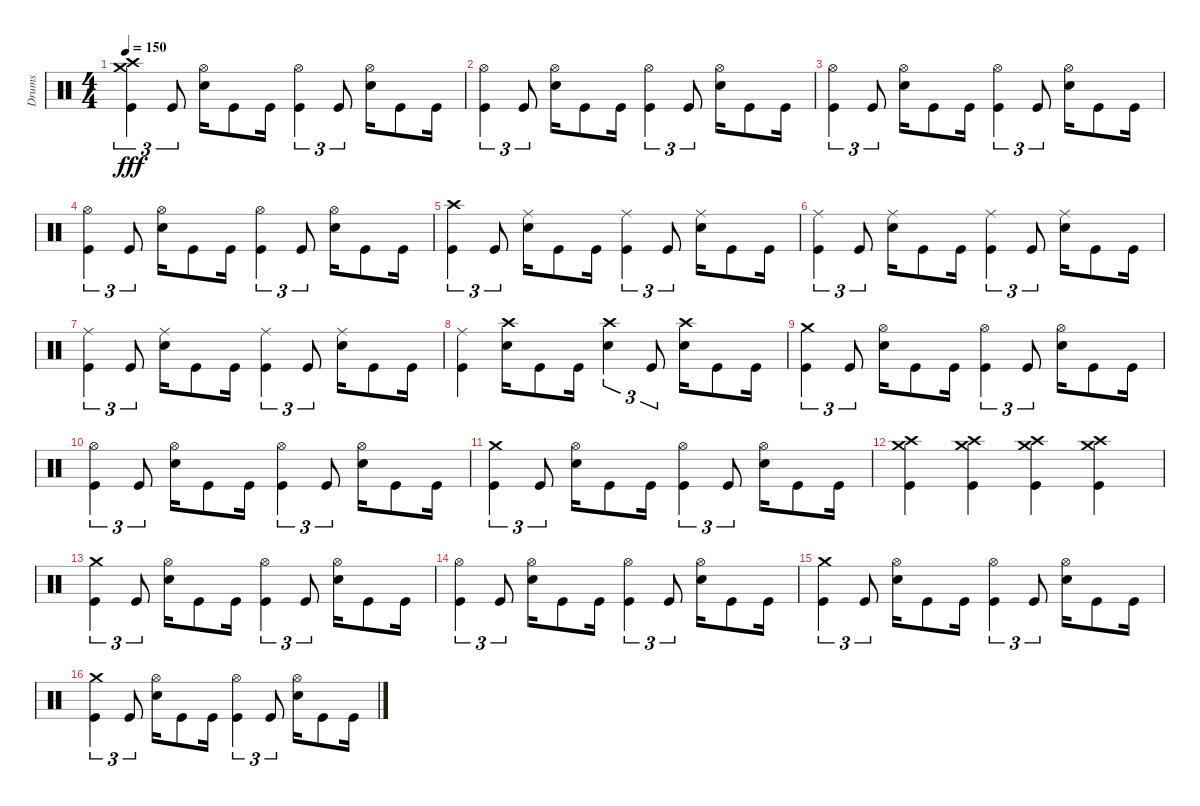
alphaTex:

\track ("Drums" "Drums") {instrument percussion}
\staff {score}
\articulation defaults
\ts (4 4)
\tempo 150
\clef neutral
\ks c
("Crash medium (hit)" "Crash high (hit)" "Kick (hit)").4{tu (3 2) dy fff} "Kick (hit)".8{tu (3 2)} ("Hi-Hat (open)" "Snare (hit) 2").16 "Kick (hit)".8 "Kick (hit)".16 ("Hi-Hat (open)" "Kick (hit)").4{tu (3 2)} "Kick (hit)".8{tu (3 2)} ("Hi-Hat (open)" "Snare (hit) 2").16 "Kick (hit)".8 "Kick (hit)".16 |
("Hi-Hat (open)" "Kick (hit)").4{tu (3 2)} "Kick (hit)".8{tu (3 2)} ("Hi-Hat (open)" "Snare (hit) 2").16 "Kick (hit)".8 "Kick (hit)".16 ("Hi-Hat (open)" "Kick (hit)").4{tu (3 2)} "Kick (hit)".8{tu (3 2)} ("Hi-Hat (open)" "Snare (hit) 2").16 "Kick (hit)".8 "Kick (hit)".16 |
("Hi-Hat (open)" "Kick (hit)").4{tu (3 2)} "Kick (hit)".8{tu (3 2)} ("Hi-Hat (open)" "Snare (hit) 2").16 "Kick (hit)".8 "Kick (hit)".16 ("Hi-Hat (open)" "Kick (hit)").4{tu (3 2)} "Kick (hit)".8{tu (3 2)} ("Hi-Hat (open)" "Snare (hit) 2").16 "Kick (hit)".8 "Kick (hit)".16 |
("Hi-Hat (open)" "Kick (hit)").4{tu (3 2)} "Kick (hit)".8{tu (3 2)} ("Hi-Hat (open)" "Snare (hit) 2").16 "Kick (hit)".8 "Kick (hit)".16 ("Hi-Hat (open)" "Kick (hit)").4{tu (3 2)} "Kick (hit)".8{tu (3 2)} ("Hi-Hat (open)" "Snare (hit) 2").16 "Kick (hit)".8 "Kick (hit)".16 |
("Crash high (hit)" "Kick (hit)").4{tu (3 2)} "Kick (hit)".8{tu (3 2)} ("Ride (middle)" "Snare (hit) 2").16 "Kick (hit)".8 "Kick (hit)".16 ("Ride (middle)" "Kick (hit)").4{tu (3 2)} "Kick (hit)".8{tu (3 2)} ("Ride (middle)" "Snare (hit) 2").16 "Kick (hit)".8 "Kick (hit)".16 |
("Ride (middle)" "Kick (hit)").4{tu (3 2)} "Kick (hit)".8{tu (3 2)} ("Ride (middle)" "Snare (hit) 2").16 "Kick (hit)".8 "Kick (hit)".16 ("Ride (middle)" "Kick (hit)").4{tu (3 2)} "Kick (hit)".8{tu (3 2)} ("Ride (middle)" "Snare (hit) 2").16 "Kick (hit)".8 "Kick (hit)".16 |
("Ride (middle)" "Kick (hit)").4{tu (3 2)} "Kick (hit)".8{tu (3 2)} ("Ride (middle)" "Snare (hit) 2").16 "Kick (hit)".8 "Kick (hit)".16 ("Ride (middle)" "Kick (hit)").4{tu (3 2)} "Kick (hit)".8{tu (3 2)} ("Ride (middle)" "Snare (hit) 2").16 "Kick (hit)".8 "Kick (hit)".16 |
("Ride (middle)" "Kick (hit)").4 ("Crash high (hit)" "Snare (hit) 2").16 "Kick (hit)".8 "Kick (hit)".16 ("Crash high (hit)" "Snare (hit) 2").4{tu (3 2)} "Kick (hit)".8{tu (3 2)} ("Crash high (hit)" "Snare (hit) 2").16 "Kick (hit)".8 "Kick (hit)".16 |
("Crash medium (hit)" "Kick (hit)").4{tu (3 2)} "Kick (hit)".8{tu (3 2)} ("Hi-Hat (open)" "Snare (hit) 2").16 "Kick (hit)".8 "Kick (hit)".16 ("Hi-Hat (open)" "Kick (hit)").4{tu (3 2)} "Kick (hit)".8{tu (3 2)} ("Hi-Hat (open)" "Snare (hit) 2").16 "Kick (hit)".8 "Kick (hit)".16 |
("Hi-Hat (open)" "Kick (hit)").4{tu (3 2)} "Kick (hit)".8{tu (3 2)} ("Hi-Hat (open)" "Snare (hit) 2").16 "Kick (hit)".8 "Kick (hit)".16 ("Hi-Hat (open)" "Kick (hit)").4{tu (3 2)} "Kick (hit)".8{tu (3 2)} ("Hi-Hat (open)" "Snare (hit) 2").16 "Kick (hit)".8 "Kick (hit)".16 |
("Crash medium (hit)" "Kick (hit)").4{tu (3 2)} "Kick (hit)".8{tu (3 2)} ("Hi-Hat (open)" "Snare (hit) 2").16 "Kick (hit)".8 "Kick (hit)".16 ("Hi-Hat (open)" "Kick (hit)").4{tu (3 2)} "Kick (hit)".8{tu (3 2)} ("Hi-Hat (open)" "Snare (hit) 2").16 "Kick (hit)".8 "Kick (hit)".16 |
("Crash medium (hit)" "Crash high (hit)" "Kick (hit)").4 ("Crash medium (hit)" "Crash high (hit)" "Kick (hit)").4 ("Crash medium (hit)" "Crash high (hit)" "Kick (hit)").4 ("Crash medium (hit)" "Crash high (hit)" "Kick (hit)").4 |
("Crash medium (hit)" "Kick (hit)").4{tu (3 2)} "Kick (hit)".8{tu (3 2)} ("Hi-Hat (open)" "Snare (hit) 2").16 "Kick (hit)".8 "Kick (hit)".16 ("Hi-Hat (open)" "Kick (hit)").4{tu (3 2)} "Kick (hit)".8{tu (3 2)} ("Hi-Hat (open)" "Snare (hit) 2").16 "Kick (hit)".8 "Kick (hit)".16 |
("Hi-Hat (open)" "Kick (hit)").4{tu (3 2)} "Kick (hit)".8{tu (3 2)} ("Hi-Hat (open)" "Snare (hit) 2").16 "Kick (hit)".8 "Kick (hit)".16 ("Hi-Hat (open)" "Kick (hit)").4{tu (3 2)} "Kick (hit)".8{tu (3 2)} ("Hi-Hat (open)" "Snare (hit) 2").16 "Kick (hit)".8 "Kick (hit)".16 |
("Crash medium (hit)" "Kick (hit)").4{tu (3 2)} "Kick (hit)".8{tu (3 2)} ("Hi-Hat (open)" "Snare (hit) 2").16 "Kick (hit)".8 "Kick (hit)".16 ("Hi-Hat (open)" "Kick (hit)").4{tu (3 2)} "Kick (hit)".8{tu (3 2)} ("Hi-Hat (open)" "Snare (hit) 2").16 "Kick (hit)".8 "Kick (hit)".16 |
("Crash medium (hit)" "Kick (hit)").4{tu (3 2)} "Kick (hit)".8{tu (3 2)} ("Hi-Hat (open)" "Snare (hit) 2").16 "Kick (hit)".8 "Kick (hit)".16 ("Hi-Hat (open)" "Kick (hit)").4{tu (3 2)} "Kick (hit)".8{tu (3 2)} ("Hi-Hat (open)" "Snare (hit) 2").16 "Kick (hit)".8 "Kick (hit)".16
